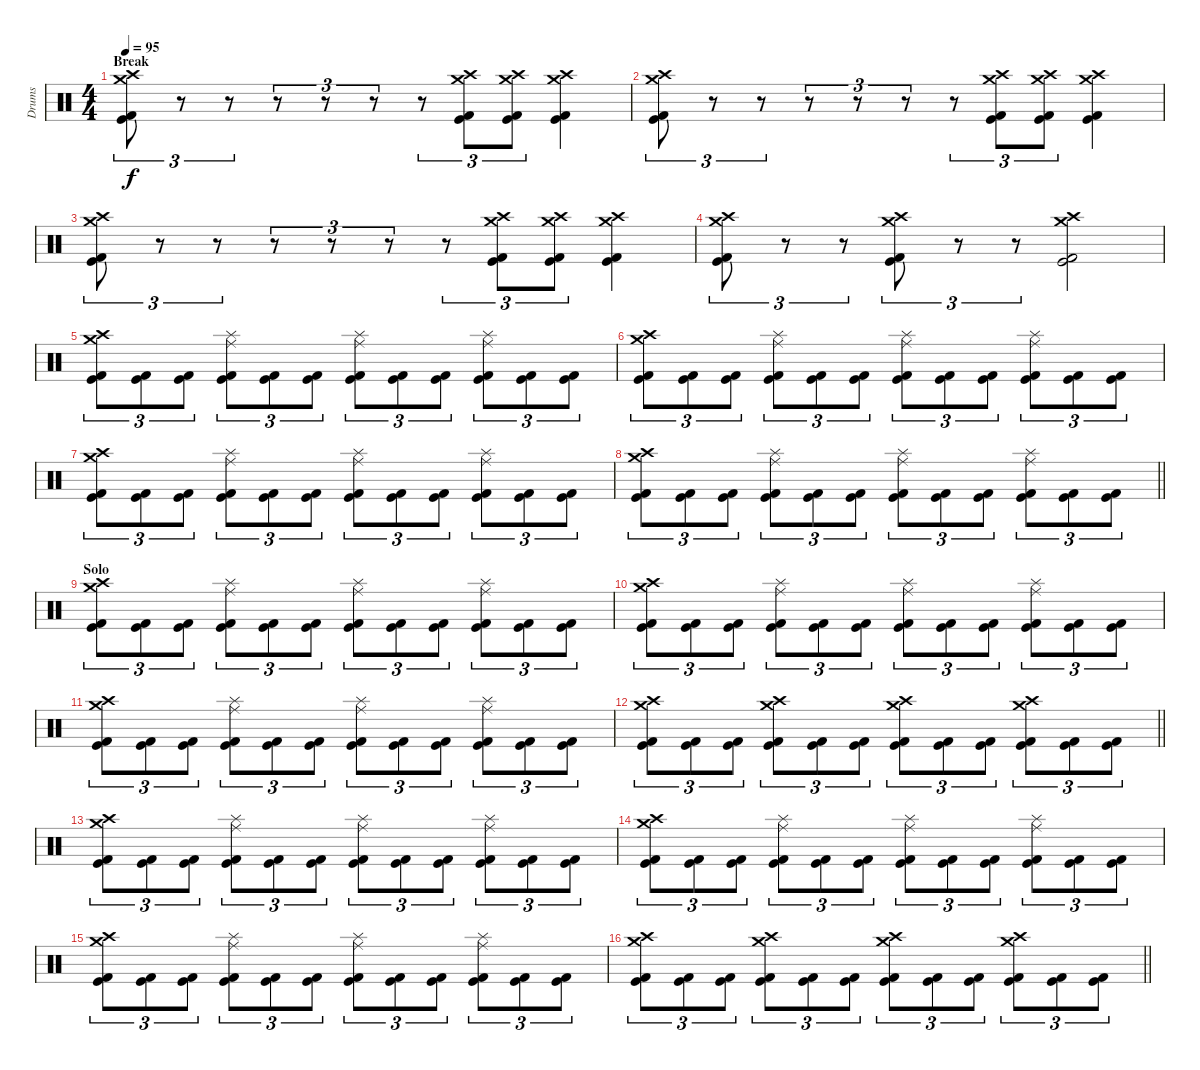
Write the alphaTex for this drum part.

\track ("Drums" "Drums") {instrument percussion}
\staff {score}
\articulation defaults
\ts (4 4)
\section ("" "Break")
\tempo 95
\clef neutral
\ks c
("Crash medium (hit)" "Kick (hit)" "Kick (hit) 2" "Crash high (hit)").8{tu (3 2) dy f} r.8{tu (3 2)} r.8{tu (3 2)} r.8{tu (3 2)} r.8{tu (3 2)} r.8{tu (3 2)} r.8{tu (3 2)} ("Crash medium (hit)" "Kick (hit)" "Kick (hit) 2" "Crash high (hit)").8{tu (3 2)} ("Crash medium (hit)" "Kick (hit)" "Kick (hit) 2" "Crash high (hit)").8{tu (3 2)} ("Crash medium (hit)" "Kick (hit)" "Kick (hit) 2" "Crash high (hit)").4 |
("Crash medium (hit)" "Kick (hit)" "Kick (hit) 2" "Crash high (hit)").8{tu (3 2)} r.8{tu (3 2)} r.8{tu (3 2)} r.8{tu (3 2)} r.8{tu (3 2)} r.8{tu (3 2)} r.8{tu (3 2)} ("Crash medium (hit)" "Kick (hit)" "Kick (hit) 2" "Crash high (hit)").8{tu (3 2)} ("Crash medium (hit)" "Kick (hit)" "Kick (hit) 2" "Crash high (hit)").8{tu (3 2)} ("Crash medium (hit)" "Kick (hit)" "Kick (hit) 2" "Crash high (hit)").4 |
("Crash medium (hit)" "Kick (hit)" "Kick (hit) 2" "Crash high (hit)").8{tu (3 2)} r.8{tu (3 2)} r.8{tu (3 2)} r.8{tu (3 2)} r.8{tu (3 2)} r.8{tu (3 2)} r.8{tu (3 2)} ("Crash medium (hit)" "Kick (hit)" "Kick (hit) 2" "Crash high (hit)").8{tu (3 2)} ("Crash medium (hit)" "Kick (hit)" "Kick (hit) 2" "Crash high (hit)").8{tu (3 2)} ("Crash medium (hit)" "Kick (hit)" "Kick (hit) 2" "Crash high (hit)").4 |
("Crash medium (hit)" "Kick (hit)" "Kick (hit) 2" "Crash high (hit)").8{tu (3 2)} r.8{tu (3 2)} r.8{tu (3 2)} ("Crash medium (hit)" "Kick (hit)" "Kick (hit) 2" "Crash high (hit)").8{tu (3 2)} r.8{tu (3 2)} r.8{tu (3 2)} ("Crash medium (hit)" "Kick (hit)" "Kick (hit) 2" "Crash high (hit)").2 |
("Crash medium (hit)" "Kick (hit)" "Kick (hit) 2" "Crash high (hit)").8{tu (3 2)} ("Kick (hit)" "Kick (hit) 2").8{tu (3 2)} ("Kick (hit)" "Kick (hit) 2").8{tu (3 2)} ("Splash (hit)" "Ride (middle)" "Kick (hit)" "Kick (hit) 2").8{tu (3 2)} ("Kick (hit)" "Kick (hit) 2").8{tu (3 2)} ("Kick (hit)" "Kick (hit) 2").8{tu (3 2)} ("Splash (hit)" "Ride (middle)" "Kick (hit)" "Kick (hit) 2").8{tu (3 2)} ("Kick (hit)" "Kick (hit) 2").8{tu (3 2)} ("Kick (hit)" "Kick (hit) 2").8{tu (3 2)} ("Splash (hit)" "Ride (middle)" "Kick (hit)" "Kick (hit) 2").8{tu (3 2)} ("Kick (hit)" "Kick (hit) 2").8{tu (3 2)} ("Kick (hit)" "Kick (hit) 2").8{tu (3 2)} |
("Crash medium (hit)" "Kick (hit)" "Kick (hit) 2" "Crash high (hit)").8{tu (3 2)} ("Kick (hit)" "Kick (hit) 2").8{tu (3 2)} ("Kick (hit)" "Kick (hit) 2").8{tu (3 2)} ("Splash (hit)" "Ride (middle)" "Kick (hit)" "Kick (hit) 2").8{tu (3 2)} ("Kick (hit)" "Kick (hit) 2").8{tu (3 2)} ("Kick (hit)" "Kick (hit) 2").8{tu (3 2)} ("Splash (hit)" "Ride (middle)" "Kick (hit)" "Kick (hit) 2").8{tu (3 2)} ("Kick (hit)" "Kick (hit) 2").8{tu (3 2)} ("Kick (hit)" "Kick (hit) 2").8{tu (3 2)} ("Splash (hit)" "Ride (middle)" "Kick (hit)" "Kick (hit) 2").8{tu (3 2)} ("Kick (hit)" "Kick (hit) 2").8{tu (3 2)} ("Kick (hit)" "Kick (hit) 2").8{tu (3 2)} |
("Crash medium (hit)" "Kick (hit)" "Kick (hit) 2" "Crash high (hit)").8{tu (3 2)} ("Kick (hit)" "Kick (hit) 2").8{tu (3 2)} ("Kick (hit)" "Kick (hit) 2").8{tu (3 2)} ("Splash (hit)" "Ride (middle)" "Kick (hit)" "Kick (hit) 2").8{tu (3 2)} ("Kick (hit)" "Kick (hit) 2").8{tu (3 2)} ("Kick (hit)" "Kick (hit) 2").8{tu (3 2)} ("Splash (hit)" "Ride (middle)" "Kick (hit)" "Kick (hit) 2").8{tu (3 2)} ("Kick (hit)" "Kick (hit) 2").8{tu (3 2)} ("Kick (hit)" "Kick (hit) 2").8{tu (3 2)} ("Splash (hit)" "Ride (middle)" "Kick (hit)" "Kick (hit) 2").8{tu (3 2)} ("Kick (hit)" "Kick (hit) 2").8{tu (3 2)} ("Kick (hit)" "Kick (hit) 2").8{tu (3 2)} |
\barLineRight lightlight
("Crash medium (hit)" "Kick (hit)" "Kick (hit) 2" "Crash high (hit)").8{tu (3 2)} ("Kick (hit)" "Kick (hit) 2").8{tu (3 2)} ("Kick (hit)" "Kick (hit) 2").8{tu (3 2)} ("Splash (hit)" "Ride (middle)" "Kick (hit)" "Kick (hit) 2").8{tu (3 2)} ("Kick (hit)" "Kick (hit) 2").8{tu (3 2)} ("Kick (hit)" "Kick (hit) 2").8{tu (3 2)} ("Splash (hit)" "Ride (middle)" "Kick (hit)" "Kick (hit) 2").8{tu (3 2)} ("Kick (hit)" "Kick (hit) 2").8{tu (3 2)} ("Kick (hit)" "Kick (hit) 2").8{tu (3 2)} ("Splash (hit)" "Ride (middle)" "Kick (hit)" "Kick (hit) 2").8{tu (3 2)} ("Kick (hit)" "Kick (hit) 2").8{tu (3 2)} ("Kick (hit)" "Kick (hit) 2").8{tu (3 2)} |
\section ("" "Solo")
("Crash medium (hit)" "Kick (hit)" "Kick (hit) 2" "Crash high (hit)").8{tu (3 2)} ("Kick (hit)" "Kick (hit) 2").8{tu (3 2)} ("Kick (hit)" "Kick (hit) 2").8{tu (3 2)} ("Splash (hit)" "Ride (middle)" "Kick (hit)" "Kick (hit) 2").8{tu (3 2)} ("Kick (hit)" "Kick (hit) 2").8{tu (3 2)} ("Kick (hit)" "Kick (hit) 2").8{tu (3 2)} ("Splash (hit)" "Ride (middle)" "Kick (hit)" "Kick (hit) 2").8{tu (3 2)} ("Kick (hit)" "Kick (hit) 2").8{tu (3 2)} ("Kick (hit)" "Kick (hit) 2").8{tu (3 2)} ("Splash (hit)" "Ride (middle)" "Kick (hit)" "Kick (hit) 2").8{tu (3 2)} ("Kick (hit)" "Kick (hit) 2").8{tu (3 2)} ("Kick (hit)" "Kick (hit) 2").8{tu (3 2)} |
("Crash medium (hit)" "Kick (hit)" "Kick (hit) 2" "Crash high (hit)").8{tu (3 2)} ("Kick (hit)" "Kick (hit) 2").8{tu (3 2)} ("Kick (hit)" "Kick (hit) 2").8{tu (3 2)} ("Splash (hit)" "Ride (middle)" "Kick (hit)" "Kick (hit) 2").8{tu (3 2)} ("Kick (hit)" "Kick (hit) 2").8{tu (3 2)} ("Kick (hit)" "Kick (hit) 2").8{tu (3 2)} ("Splash (hit)" "Ride (middle)" "Kick (hit)" "Kick (hit) 2").8{tu (3 2)} ("Kick (hit)" "Kick (hit) 2").8{tu (3 2)} ("Kick (hit)" "Kick (hit) 2").8{tu (3 2)} ("Splash (hit)" "Ride (middle)" "Kick (hit)" "Kick (hit) 2").8{tu (3 2)} ("Kick (hit)" "Kick (hit) 2").8{tu (3 2)} ("Kick (hit)" "Kick (hit) 2").8{tu (3 2)} |
("Crash medium (hit)" "Kick (hit)" "Kick (hit) 2" "Crash high (hit)").8{tu (3 2)} ("Kick (hit)" "Kick (hit) 2").8{tu (3 2)} ("Kick (hit)" "Kick (hit) 2").8{tu (3 2)} ("Splash (hit)" "Ride (middle)" "Kick (hit)" "Kick (hit) 2").8{tu (3 2)} ("Kick (hit)" "Kick (hit) 2").8{tu (3 2)} ("Kick (hit)" "Kick (hit) 2").8{tu (3 2)} ("Splash (hit)" "Ride (middle)" "Kick (hit)" "Kick (hit) 2").8{tu (3 2)} ("Kick (hit)" "Kick (hit) 2").8{tu (3 2)} ("Kick (hit)" "Kick (hit) 2").8{tu (3 2)} ("Splash (hit)" "Ride (middle)" "Kick (hit)" "Kick (hit) 2").8{tu (3 2)} ("Kick (hit)" "Kick (hit) 2").8{tu (3 2)} ("Kick (hit)" "Kick (hit) 2").8{tu (3 2)} |
\barLineRight lightlight
("Crash medium (hit)" "Kick (hit)" "Kick (hit) 2" "Crash high (hit)").8{tu (3 2)} ("Kick (hit)" "Kick (hit) 2").8{tu (3 2)} ("Kick (hit)" "Kick (hit) 2").8{tu (3 2)} ("Crash medium (hit)" "Kick (hit)" "Kick (hit) 2" "Crash high (hit)").8{tu (3 2)} ("Kick (hit)" "Kick (hit) 2").8{tu (3 2)} ("Kick (hit)" "Kick (hit) 2").8{tu (3 2)} ("Crash medium (hit)" "Kick (hit)" "Kick (hit) 2" "Crash high (hit)").8{tu (3 2)} ("Kick (hit)" "Kick (hit) 2").8{tu (3 2)} ("Kick (hit)" "Kick (hit) 2").8{tu (3 2)} ("Crash medium (hit)" "Kick (hit)" "Kick (hit) 2" "Crash high (hit)").8{tu (3 2)} ("Kick (hit)" "Kick (hit) 2").8{tu (3 2)} ("Kick (hit)" "Kick (hit) 2").8{tu (3 2)} |
("Crash medium (hit)" "Kick (hit)" "Kick (hit) 2" "Crash high (hit)").8{tu (3 2)} ("Kick (hit)" "Kick (hit) 2").8{tu (3 2)} ("Kick (hit)" "Kick (hit) 2").8{tu (3 2)} ("Splash (hit)" "Ride (middle)" "Kick (hit)" "Kick (hit) 2").8{tu (3 2)} ("Kick (hit)" "Kick (hit) 2").8{tu (3 2)} ("Kick (hit)" "Kick (hit) 2").8{tu (3 2)} ("Splash (hit)" "Ride (middle)" "Kick (hit)" "Kick (hit) 2").8{tu (3 2)} ("Kick (hit)" "Kick (hit) 2").8{tu (3 2)} ("Kick (hit)" "Kick (hit) 2").8{tu (3 2)} ("Splash (hit)" "Ride (middle)" "Kick (hit)" "Kick (hit) 2").8{tu (3 2)} ("Kick (hit)" "Kick (hit) 2").8{tu (3 2)} ("Kick (hit)" "Kick (hit) 2").8{tu (3 2)} |
("Crash medium (hit)" "Kick (hit)" "Kick (hit) 2" "Crash high (hit)").8{tu (3 2)} ("Kick (hit)" "Kick (hit) 2").8{tu (3 2)} ("Kick (hit)" "Kick (hit) 2").8{tu (3 2)} ("Splash (hit)" "Ride (middle)" "Kick (hit)" "Kick (hit) 2").8{tu (3 2)} ("Kick (hit)" "Kick (hit) 2").8{tu (3 2)} ("Kick (hit)" "Kick (hit) 2").8{tu (3 2)} ("Splash (hit)" "Ride (middle)" "Kick (hit)" "Kick (hit) 2").8{tu (3 2)} ("Kick (hit)" "Kick (hit) 2").8{tu (3 2)} ("Kick (hit)" "Kick (hit) 2").8{tu (3 2)} ("Splash (hit)" "Ride (middle)" "Kick (hit)" "Kick (hit) 2").8{tu (3 2)} ("Kick (hit)" "Kick (hit) 2").8{tu (3 2)} ("Kick (hit)" "Kick (hit) 2").8{tu (3 2)} |
("Crash medium (hit)" "Kick (hit)" "Kick (hit) 2" "Crash high (hit)").8{tu (3 2)} ("Kick (hit)" "Kick (hit) 2").8{tu (3 2)} ("Kick (hit)" "Kick (hit) 2").8{tu (3 2)} ("Splash (hit)" "Ride (middle)" "Kick (hit)" "Kick (hit) 2").8{tu (3 2)} ("Kick (hit)" "Kick (hit) 2").8{tu (3 2)} ("Kick (hit)" "Kick (hit) 2").8{tu (3 2)} ("Splash (hit)" "Ride (middle)" "Kick (hit)" "Kick (hit) 2").8{tu (3 2)} ("Kick (hit)" "Kick (hit) 2").8{tu (3 2)} ("Kick (hit)" "Kick (hit) 2").8{tu (3 2)} ("Splash (hit)" "Ride (middle)" "Kick (hit)" "Kick (hit) 2").8{tu (3 2)} ("Kick (hit)" "Kick (hit) 2").8{tu (3 2)} ("Kick (hit)" "Kick (hit) 2").8{tu (3 2)} |
\barLineRight lightlight
("Crash medium (hit)" "Kick (hit)" "Kick (hit) 2" "Crash high (hit)").8{tu (3 2)} ("Kick (hit)" "Kick (hit) 2").8{tu (3 2)} ("Kick (hit)" "Kick (hit) 2").8{tu (3 2)} ("Crash medium (hit)" "Kick (hit)" "Kick (hit) 2" "Crash high (hit)").8{tu (3 2)} ("Kick (hit)" "Kick (hit) 2").8{tu (3 2)} ("Kick (hit)" "Kick (hit) 2").8{tu (3 2)} ("Crash medium (hit)" "Kick (hit)" "Kick (hit) 2" "Crash high (hit)").8{tu (3 2)} ("Kick (hit)" "Kick (hit) 2").8{tu (3 2)} ("Kick (hit)" "Kick (hit) 2").8{tu (3 2)} ("Crash medium (hit)" "Kick (hit)" "Kick (hit) 2" "Crash high (hit)").8{tu (3 2)} ("Kick (hit)" "Kick (hit) 2").8{tu (3 2)} ("Kick (hit)" "Kick (hit) 2").8{tu (3 2)}
